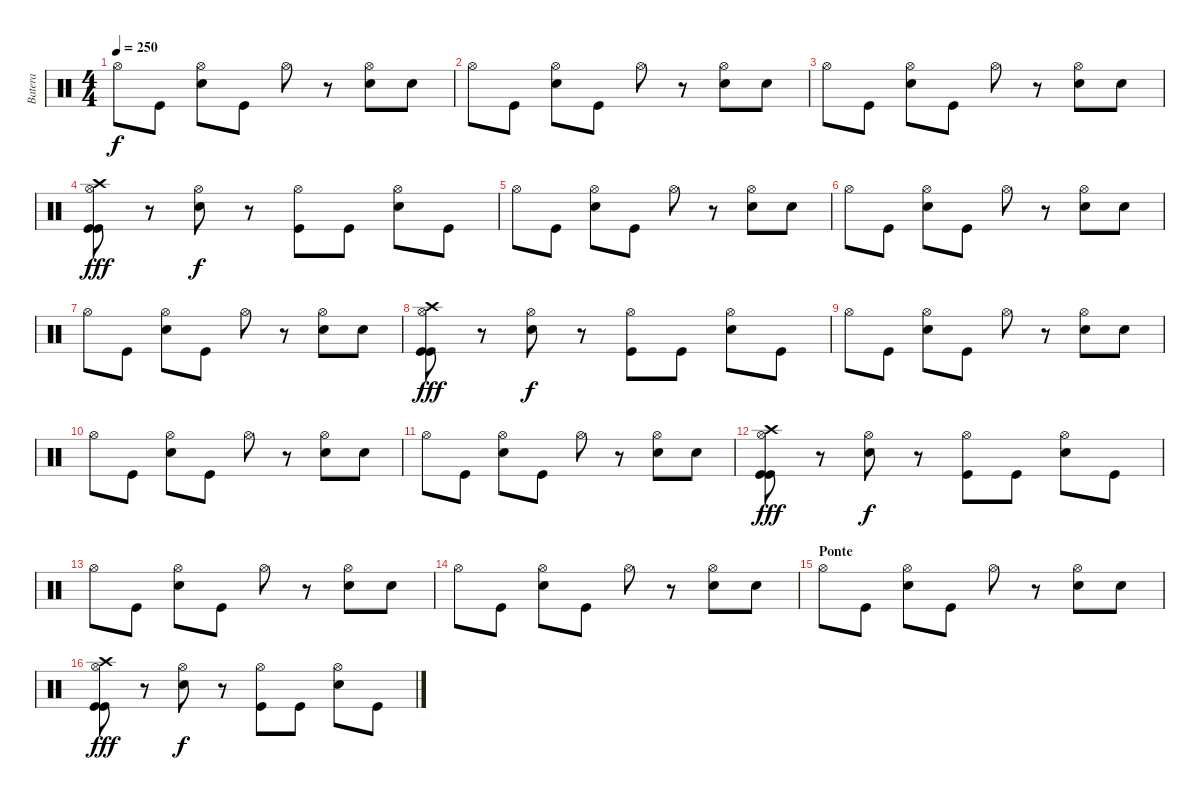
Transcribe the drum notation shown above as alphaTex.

\track ("Batera" "Batera") {instrument percussion}
\staff {score}
\articulation defaults
\ts (4 4)
\tempo 250
\clef neutral
\ks c "Hi-Hat (open)".8{dy f} "Kick (hit)".8
("Hi-Hat (open)" "Electric Snare (hit)").8 "Kick (hit)".8 "Hi-Hat (open)".8 r.8 ("Hi-Hat (open)" "Electric Snare (hit)").8 "Electric Snare (hit)".8 |
"Hi-Hat (open)".8 "Kick (hit)".8 ("Hi-Hat (open)" "Electric Snare (hit)").8 "Kick (hit)".8 "Hi-Hat (open)".8 r.8 ("Hi-Hat (open)" "Electric Snare (hit)").8 "Electric Snare (hit)".8 |
"Hi-Hat (open)".8 "Kick (hit)".8 ("Hi-Hat (open)" "Electric Snare (hit)").8 "Kick (hit)".8 "Hi-Hat (open)".8 r.8 ("Hi-Hat (open)" "Electric Snare (hit)").8 "Electric Snare (hit)".8 |
("Hi-Hat (open)" "Crash high (hit)" "Kick (hit)" "Kick (hit)").8{dy fff} r.8 ("Hi-Hat (open)" "Electric Snare (hit)").8{dy f} r.8 ("Hi-Hat (open)" "Kick (hit)").8 "Kick (hit)".8 ("Hi-Hat (open)" "Electric Snare (hit)").8 "Kick (hit)".8 |
"Hi-Hat (open)".8 "Kick (hit)".8 ("Hi-Hat (open)" "Electric Snare (hit)").8 "Kick (hit)".8 "Hi-Hat (open)".8 r.8 ("Hi-Hat (open)" "Electric Snare (hit)").8 "Electric Snare (hit)".8 |
"Hi-Hat (open)".8 "Kick (hit)".8 ("Hi-Hat (open)" "Electric Snare (hit)").8 "Kick (hit)".8 "Hi-Hat (open)".8 r.8 ("Hi-Hat (open)" "Electric Snare (hit)").8 "Electric Snare (hit)".8 |
"Hi-Hat (open)".8 "Kick (hit)".8 ("Hi-Hat (open)" "Electric Snare (hit)").8 "Kick (hit)".8 "Hi-Hat (open)".8 r.8 ("Hi-Hat (open)" "Electric Snare (hit)").8 "Electric Snare (hit)".8 |
("Hi-Hat (open)" "Crash high (hit)" "Kick (hit)" "Kick (hit)").8{dy fff} r.8 ("Hi-Hat (open)" "Electric Snare (hit)").8{dy f} r.8 ("Hi-Hat (open)" "Kick (hit)").8 "Kick (hit)".8 ("Hi-Hat (open)" "Electric Snare (hit)").8 "Kick (hit)".8 |
"Hi-Hat (open)".8 "Kick (hit)".8 ("Hi-Hat (open)" "Electric Snare (hit)").8 "Kick (hit)".8 "Hi-Hat (open)".8 r.8 ("Hi-Hat (open)" "Electric Snare (hit)").8 "Electric Snare (hit)".8 |
"Hi-Hat (open)".8 "Kick (hit)".8 ("Hi-Hat (open)" "Electric Snare (hit)").8 "Kick (hit)".8 "Hi-Hat (open)".8 r.8 ("Hi-Hat (open)" "Electric Snare (hit)").8 "Electric Snare (hit)".8 |
"Hi-Hat (open)".8 "Kick (hit)".8 ("Hi-Hat (open)" "Electric Snare (hit)").8 "Kick (hit)".8 "Hi-Hat (open)".8 r.8 ("Hi-Hat (open)" "Electric Snare (hit)").8 "Electric Snare (hit)".8 |
("Hi-Hat (open)" "Crash high (hit)" "Kick (hit)" "Kick (hit)").8{dy fff} r.8 ("Hi-Hat (open)" "Electric Snare (hit)").8{dy f} r.8 ("Hi-Hat (open)" "Kick (hit)").8 "Kick (hit)".8 ("Hi-Hat (open)" "Electric Snare (hit)").8 "Kick (hit)".8 |
"Hi-Hat (open)".8 "Kick (hit)".8 ("Hi-Hat (open)" "Electric Snare (hit)").8 "Kick (hit)".8 "Hi-Hat (open)".8 r.8 ("Hi-Hat (open)" "Electric Snare (hit)").8 "Electric Snare (hit)".8 |
"Hi-Hat (open)".8 "Kick (hit)".8 ("Hi-Hat (open)" "Electric Snare (hit)").8 "Kick (hit)".8 "Hi-Hat (open)".8 r.8 ("Hi-Hat (open)" "Electric Snare (hit)").8 "Electric Snare (hit)".8 |
\section ("" "Ponte ")
"Hi-Hat (open)".8 "Kick (hit)".8 ("Hi-Hat (open)" "Electric Snare (hit)").8 "Kick (hit)".8 "Hi-Hat (open)".8 r.8 ("Hi-Hat (open)" "Electric Snare (hit)").8 "Electric Snare (hit)".8 |
("Hi-Hat (open)" "Crash high (hit)" "Kick (hit)" "Kick (hit)").8{dy fff} r.8 ("Hi-Hat (open)" "Electric Snare (hit)").8{dy f} r.8 ("Hi-Hat (open)" "Kick (hit)").8 "Kick (hit)".8 ("Hi-Hat (open)" "Electric Snare (hit)").8 "Kick (hit)".8
